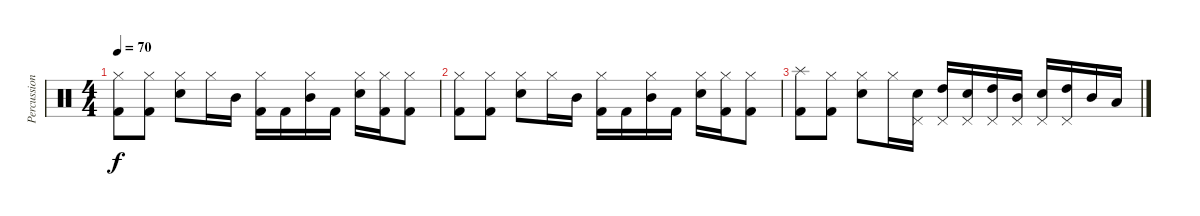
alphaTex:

\track ("Percussion" "Percussion") {instrument percussion}
\staff {score}
\articulation defaults
\ts (4 4)
\tempo 70
\clef neutral
\ks c
("Hi-Hat (closed)" "Kick (hit) 2").8{dy f} ("Hi-Hat (closed)" "Kick (hit) 2").8 ("Hi-Hat (closed)" "Electric Snare (hit)").8 "Hi-Hat (closed)".16 "Mid Tom (hit)".16 ("Hi-Hat (closed)" "Kick (hit) 2").16 "Kick (hit) 2".16 ("Hi-Hat (closed)" "Mid Tom (hit)").16 "Kick (hit) 2".16 ("Hi-Hat (closed)" "Electric Snare (hit)").16 ("Hi-Hat (closed)" "Kick (hit) 2").16 ("Hi-Hat (closed)" "Kick (hit) 2").8 |
("Hi-Hat (closed)" "Kick (hit) 2").8 ("Hi-Hat (closed)" "Kick (hit) 2").8 ("Hi-Hat (closed)" "Electric Snare (hit)").8 "Hi-Hat (closed)".16 "Mid Tom (hit)".16 ("Hi-Hat (closed)" "Kick (hit) 2").16 "Kick (hit) 2".16 ("Hi-Hat (closed)" "Mid Tom (hit)").16 "Kick (hit) 2".16 ("Hi-Hat (closed)" "Electric Snare (hit)").16 ("Hi-Hat (closed)" "Kick (hit) 2").16 ("Hi-Hat (closed)" "Kick (hit) 2").8 |
("Splash (hit)" "Kick (hit) 2").8 ("Hi-Hat (closed)" "Kick (hit) 2").8 ("Hi-Hat (closed)" "Electric Snare (hit)").8 "Hi-Hat (closed)".16 ("Pedal Hi-Hat (hit)" "Electric Snare (hit)").16 ("Pedal Hi-Hat (hit)" "High Tom (hit)").16 ("Pedal Hi-Hat (hit)" "Electric Snare (hit)").16 ("Pedal Hi-Hat (hit)" "High Tom (hit)").16 ("Pedal Hi-Hat (hit)" "Mid Tom (hit)").16 ("Pedal Hi-Hat (hit)" "Electric Snare (hit)").16 ("Pedal Hi-Hat (hit)" "High Tom (hit)").16 "Mid Tom (hit)".16 "Low Tom (hit)".16
